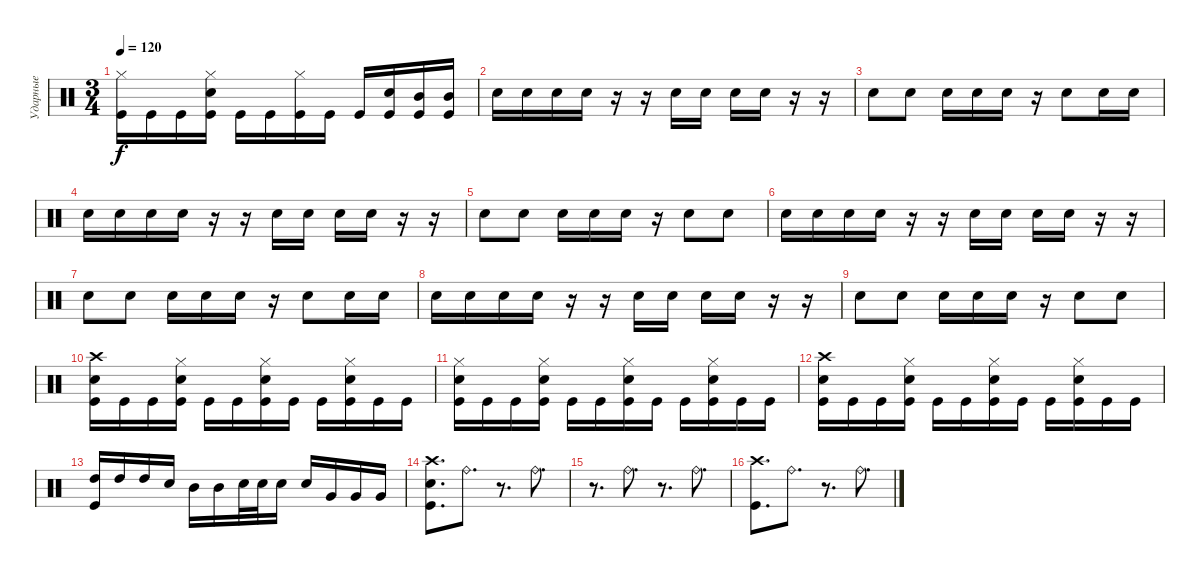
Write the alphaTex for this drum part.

\track ("Ударные" "Ударные") {instrument percussion}
\staff {score}
\articulation defaults
\ts (3 4)
\tempo 120
\clef neutral
\ks c
("Hi-Hat (closed)" "Kick (hit)").16{dy f} "Kick (hit)".16 "Kick (hit)".16 ("Hi-Hat (closed)" "Electric Snare (hit)" "Kick (hit)").16 "Kick (hit)".16 "Kick (hit)".16 ("Hi-Hat (closed)" "Kick (hit)").16 "Kick (hit)".16 "Kick (hit)".16 ("Electric Snare (hit)" "Kick (hit)").16 ("Mid Tom (hit)" "Kick (hit)").16 ("Mid Tom (hit)" "Kick (hit)").16 |
"Electric Snare (hit)".16 "Electric Snare (hit)".16 "Electric Snare (hit)".16 "Electric Snare (hit)".16 r.16 r.16 "Electric Snare (hit)".16 "Electric Snare (hit)".16 "Electric Snare (hit)".16 "Electric Snare (hit)".16 r.16 r.16 |
"Electric Snare (hit)".8 "Electric Snare (hit)".8 "Electric Snare (hit)".16 "Electric Snare (hit)".16 "Electric Snare (hit)".16 r.16 "Electric Snare (hit)".8 "Electric Snare (hit)".16 "Electric Snare (hit)".16 |
"Electric Snare (hit)".16 "Electric Snare (hit)".16 "Electric Snare (hit)".16 "Electric Snare (hit)".16 r.16 r.16 "Electric Snare (hit)".16 "Electric Snare (hit)".16 "Electric Snare (hit)".16 "Electric Snare (hit)".16 r.16 r.16 |
"Electric Snare (hit)".8 "Electric Snare (hit)".8 "Electric Snare (hit)".16 "Electric Snare (hit)".16 "Electric Snare (hit)".16 r.16 "Electric Snare (hit)".8 "Electric Snare (hit)".8 |
"Electric Snare (hit)".16 "Electric Snare (hit)".16 "Electric Snare (hit)".16 "Electric Snare (hit)".16 r.16 r.16 "Electric Snare (hit)".16 "Electric Snare (hit)".16 "Electric Snare (hit)".16 "Electric Snare (hit)".16 r.16 r.16 |
"Electric Snare (hit)".8 "Electric Snare (hit)".8 "Electric Snare (hit)".16 "Electric Snare (hit)".16 "Electric Snare (hit)".16 r.16 "Electric Snare (hit)".8 "Electric Snare (hit)".16 "Electric Snare (hit)".16 |
"Electric Snare (hit)".16 "Electric Snare (hit)".16 "Electric Snare (hit)".16 "Electric Snare (hit)".16 r.16 r.16 "Electric Snare (hit)".16 "Electric Snare (hit)".16 "Electric Snare (hit)".16 "Electric Snare (hit)".16 r.16 r.16 |
"Electric Snare (hit)".8 "Electric Snare (hit)".8 "Electric Snare (hit)".16 "Electric Snare (hit)".16 "Electric Snare (hit)".16 r.16 "Electric Snare (hit)".8 "Electric Snare (hit)".8 |
("Crash high (hit)" "Electric Snare (hit)" "Kick (hit)").16 "Kick (hit)".16 "Kick (hit)".16 ("Hi-Hat (closed)" "Electric Snare (hit)" "Kick (hit)").16 "Kick (hit)".16 "Kick (hit)".16 ("Hi-Hat (closed)" "Electric Snare (hit)" "Kick (hit)").16 "Kick (hit)".16 "Kick (hit)".16 ("Hi-Hat (closed)" "Electric Snare (hit)" "Kick (hit)").16 "Kick (hit)".16 "Kick (hit)".16 |
("Hi-Hat (closed)" "Electric Snare (hit)" "Kick (hit)").16 "Kick (hit)".16 "Kick (hit)".16 ("Hi-Hat (closed)" "Electric Snare (hit)" "Kick (hit)").16 "Kick (hit)".16 "Kick (hit)".16 ("Hi-Hat (closed)" "Electric Snare (hit)" "Kick (hit)").16 "Kick (hit)".16 "Kick (hit)".16 ("Hi-Hat (closed)" "Electric Snare (hit)" "Kick (hit)").16 "Kick (hit)".16 "Kick (hit)".16 |
("Crash high (hit)" "Electric Snare (hit)" "Kick (hit)").16 "Kick (hit)".16 "Kick (hit)".16 ("Hi-Hat (closed)" "Electric Snare (hit)" "Kick (hit)").16 "Kick (hit)".16 "Kick (hit)".16 ("Hi-Hat (closed)" "Electric Snare (hit)" "Kick (hit)").16 "Kick (hit)".16 "Kick (hit)".16 ("Hi-Hat (closed)" "Electric Snare (hit)" "Kick (hit)").16 "Kick (hit)".16 "Kick (hit)".16 |
("High Tom (hit)" "Kick (hit)").16 "High Tom (hit)".16 "High Tom (hit)".16 "Electric Snare (hit)".16 "Mid Tom (hit)".16 "Mid Tom (hit)".16 "Electric Snare (hit)".32 "Electric Snare (hit)".32 "Electric Snare (hit)".16 "Electric Snare (hit)".16 "Very Low Tom (hit)".16 "Very Low Tom (hit)".16 "Very Low Tom (hit)".16 |
("Crash high (hit)" "Electric Snare (hit)" "Kick (hit)").8{d} "Ride (bell)".8{d} r.8{d} "Ride (bell)".8{d} |
r.8{d} "Ride (bell)".8{d} r.8{d} "Ride (bell)".8{d} |
("Crash high (hit)" "Kick (hit)").8{d} "Ride (bell)".8{d} r.8{d} "Ride (bell)".8{d}
